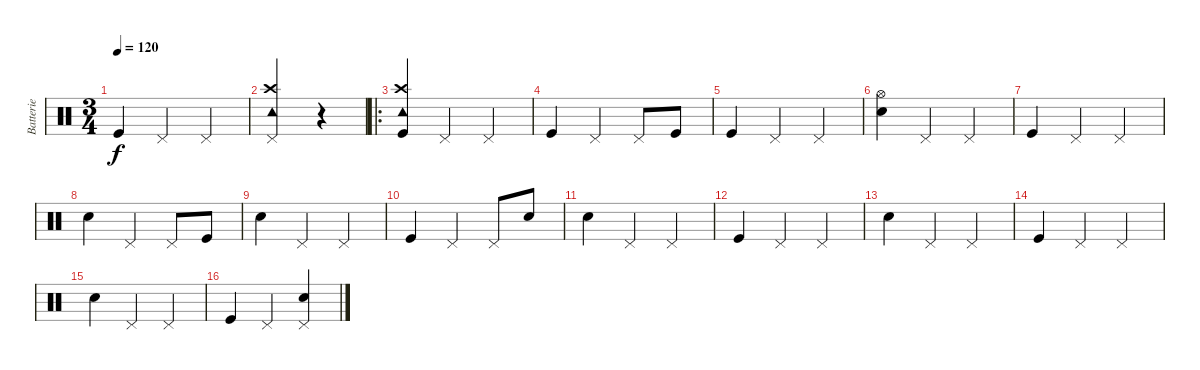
\track ("Batterie" "Batterie") {instrument percussion}
\staff {score}
\articulation defaults
\ts (3 4)
\tempo 120
\clef neutral
\ks c "Kick (hit)".4{dy f} "Pedal Hi-Hat (hit)".4 "Pedal Hi-Hat (hit)".4
|
("Crash high (hit)" "Pedal Hi-Hat (hit)" "Tambourine (hit)").2 r.4 |
\ro
("Crash high (hit)" "Tambourine (hit)" "Kick (hit)").4 "Pedal Hi-Hat (hit)".4 "Pedal Hi-Hat (hit)".4 |
"Kick (hit)".4 "Pedal Hi-Hat (hit)".4 "Pedal Hi-Hat (hit)".8 "Kick (hit)".8 |
"Kick (hit)".4 "Pedal Hi-Hat (hit)".4 "Pedal Hi-Hat (hit)".4 |
("Hi-Hat (open)" "Snare (hit) 2").4 "Pedal Hi-Hat (hit)".4 "Pedal Hi-Hat (hit)".4 |
"Kick (hit)".4 "Pedal Hi-Hat (hit)".4 "Pedal Hi-Hat (hit)".4 |
"Snare (hit) 2".4 "Pedal Hi-Hat (hit)".4 "Pedal Hi-Hat (hit)".8 "Kick (hit)".8 |
"Snare (hit) 2".4 "Pedal Hi-Hat (hit)".4 "Pedal Hi-Hat (hit)".4 |
"Kick (hit)".4 "Pedal Hi-Hat (hit)".4 "Pedal Hi-Hat (hit)".8 "Snare (hit) 2".8 |
"Snare (hit) 2".4 "Pedal Hi-Hat (hit)".4 "Pedal Hi-Hat (hit)".4 |
"Kick (hit)".4 "Pedal Hi-Hat (hit)".4 "Pedal Hi-Hat (hit)".4 |
"Snare (hit) 2".4 "Pedal Hi-Hat (hit)".4 "Pedal Hi-Hat (hit)".4 |
"Kick (hit)".4 "Pedal Hi-Hat (hit)".4 "Pedal Hi-Hat (hit)".4 |
"Snare (hit) 2".4 "Pedal Hi-Hat (hit)".4 "Pedal Hi-Hat (hit)".4 |
"Kick (hit)".4 "Pedal Hi-Hat (hit)".4 ("Pedal Hi-Hat (hit)" "Snare (hit) 2").4
